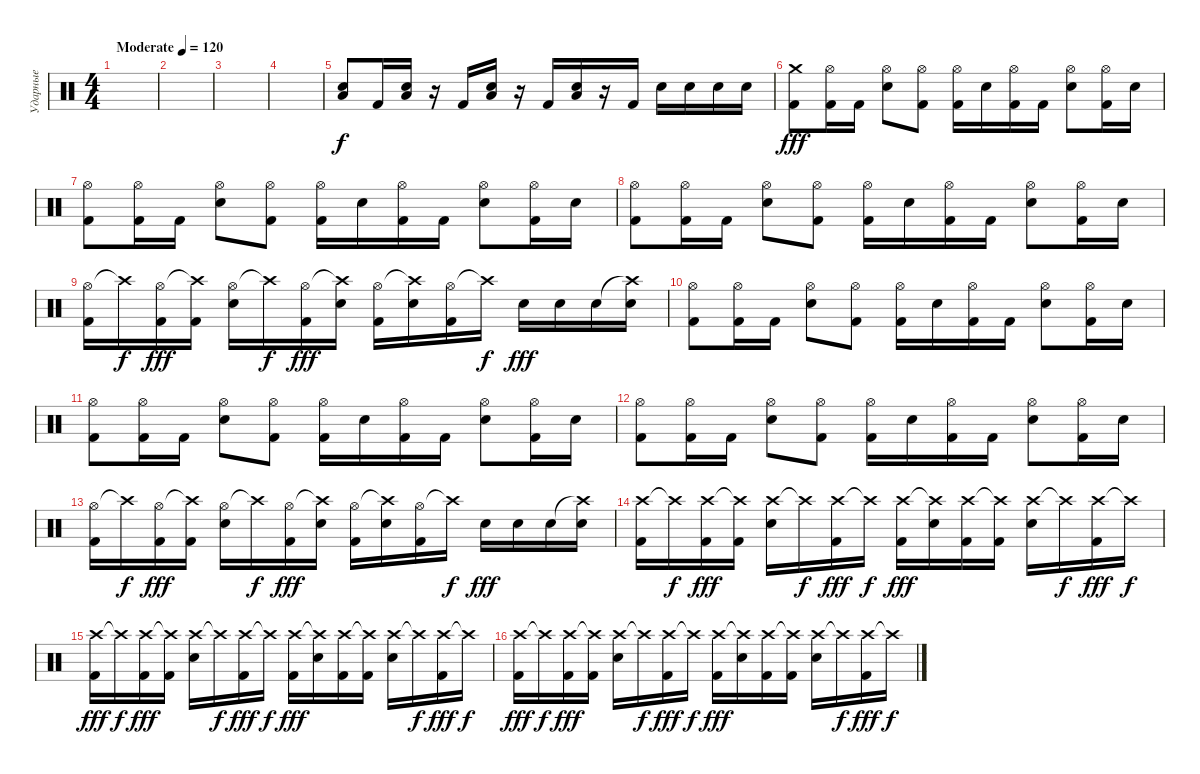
\track ("Ударные" "Ударные") {instrument percussion}
\staff {score}
\articulation defaults
\ts (4 4)
\tempo (120 "Moderate")
\clef neutral
\ks c
|
|
|
|
("Low Tom (hit)" "Electric Snare (hit)").8 "Kick (hit) 2".16 ("Low Tom (hit)" "Electric Snare (hit)").16 r.16 "Kick (hit) 2".16 ("Low Tom (hit)" "Electric Snare (hit)").16 r.16 "Kick (hit) 2".16 ("Low Tom (hit)" "Electric Snare (hit)").16 r.16 "Kick (hit) 2".16 "Electric Snare (hit)".16 "Electric Snare (hit)".16 "Electric Snare (hit)".16 "Electric Snare (hit)".16 |
("Crash medium (hit)" "Kick (hit) 2").8{dy fff} ("Hi-Hat (open)" "Kick (hit) 2").16 "Kick (hit) 2".16 ("Hi-Hat (open)" "Electric Snare (hit)").8 ("Hi-Hat (open)" "Kick (hit) 2").8 ("Hi-Hat (open)" "Kick (hit) 2").16 "Electric Snare (hit)".16 ("Hi-Hat (open)" "Kick (hit) 2").16 "Kick (hit) 2".16 ("Hi-Hat (open)" "Electric Snare (hit)").8 ("Hi-Hat (open)" "Kick (hit) 2").16 "Electric Snare (hit)".16 |
("Hi-Hat (open)" "Kick (hit) 2").8 ("Hi-Hat (open)" "Kick (hit) 2").16 "Kick (hit) 2".16 ("Hi-Hat (open)" "Electric Snare (hit)").8 ("Hi-Hat (open)" "Kick (hit) 2").8 ("Hi-Hat (open)" "Kick (hit) 2").16 "Electric Snare (hit)".16 ("Hi-Hat (open)" "Kick (hit) 2").16 "Kick (hit) 2".16 ("Hi-Hat (open)" "Electric Snare (hit)").8 ("Hi-Hat (open)" "Kick (hit) 2").16 "Electric Snare (hit)".16 |
("Hi-Hat (open)" "Kick (hit) 2").8 ("Hi-Hat (open)" "Kick (hit) 2").16 "Kick (hit) 2".16 ("Hi-Hat (open)" "Electric Snare (hit)").8 ("Hi-Hat (open)" "Kick (hit) 2").8 ("Hi-Hat (open)" "Kick (hit) 2").16 "Electric Snare (hit)".16 ("Hi-Hat (open)" "Kick (hit) 2").16 "Kick (hit) 2".16 ("Hi-Hat (open)" "Electric Snare (hit)").8 ("Hi-Hat (open)" "Kick (hit) 2").16 "Electric Snare (hit)".16 |
("Hi-Hat (open)" "Kick (hit) 2").16 "Crash high (hit)"{t}.16{dy f} ("Hi-Hat (open)" "Kick (hit) 2").16{dy fff} ("Crash high (hit)"{t} "Kick (hit) 2").16 ("Hi-Hat (open)" "Electric Snare (hit)").16 "Crash high (hit)"{t}.16{dy f} ("Hi-Hat (open)" "Kick (hit) 2").16{dy fff} ("Crash high (hit)"{t} "Electric Snare (hit)").16 ("Hi-Hat (open)" "Kick (hit) 2").16 ("Crash high (hit)"{t} "Electric Snare (hit)").16 ("Hi-Hat (open)" "Kick (hit) 2").16 "Crash high (hit)"{t}.16{dy f} "Electric Snare (hit)".16{dy fff} "Electric Snare (hit)".16 "Electric Snare (hit)".16 ("Crash high (hit)"{t} "Electric Snare (hit)").16 |
("Hi-Hat (open)" "Kick (hit) 2").8 ("Hi-Hat (open)" "Kick (hit) 2").16 "Kick (hit) 2".16 ("Hi-Hat (open)" "Electric Snare (hit)").8 ("Hi-Hat (open)" "Kick (hit) 2").8 ("Hi-Hat (open)" "Kick (hit) 2").16 "Electric Snare (hit)".16 ("Hi-Hat (open)" "Kick (hit) 2").16 "Kick (hit) 2".16 ("Hi-Hat (open)" "Electric Snare (hit)").8 ("Hi-Hat (open)" "Kick (hit) 2").16 "Electric Snare (hit)".16 |
("Hi-Hat (open)" "Kick (hit) 2").8 ("Hi-Hat (open)" "Kick (hit) 2").16 "Kick (hit) 2".16 ("Hi-Hat (open)" "Electric Snare (hit)").8 ("Hi-Hat (open)" "Kick (hit) 2").8 ("Hi-Hat (open)" "Kick (hit) 2").16 "Electric Snare (hit)".16 ("Hi-Hat (open)" "Kick (hit) 2").16 "Kick (hit) 2".16 ("Hi-Hat (open)" "Electric Snare (hit)").8 ("Hi-Hat (open)" "Kick (hit) 2").16 "Electric Snare (hit)".16 |
("Hi-Hat (open)" "Kick (hit) 2").8 ("Hi-Hat (open)" "Kick (hit) 2").16 "Kick (hit) 2".16 ("Hi-Hat (open)" "Electric Snare (hit)").8 ("Hi-Hat (open)" "Kick (hit) 2").8 ("Hi-Hat (open)" "Kick (hit) 2").16 "Electric Snare (hit)".16 ("Hi-Hat (open)" "Kick (hit) 2").16 "Kick (hit) 2".16 ("Hi-Hat (open)" "Electric Snare (hit)").8 ("Hi-Hat (open)" "Kick (hit) 2").16 "Electric Snare (hit)".16 |
("Hi-Hat (open)" "Kick (hit) 2").16 "Crash high (hit)"{t}.16{dy f} ("Hi-Hat (open)" "Kick (hit) 2").16{dy fff} ("Crash high (hit)"{t} "Kick (hit) 2").16 ("Hi-Hat (open)" "Electric Snare (hit)").16 "Crash high (hit)"{t}.16{dy f} ("Hi-Hat (open)" "Kick (hit) 2").16{dy fff} ("Crash high (hit)"{t} "Electric Snare (hit)").16 ("Hi-Hat (open)" "Kick (hit) 2").16 ("Crash high (hit)"{t} "Electric Snare (hit)").16 ("Hi-Hat (open)" "Kick (hit) 2").16 "Crash high (hit)"{t}.16{dy f} "Electric Snare (hit)".16{dy fff} "Electric Snare (hit)".16 "Electric Snare (hit)".16 ("Crash high (hit)"{t} "Electric Snare (hit)").16 |
("Crash high (hit)" "Kick (hit) 2").16 "Crash high (hit)"{t}.16{dy f} ("Crash high (hit)" "Kick (hit) 2").16{dy fff} ("Crash high (hit)"{t} "Kick (hit) 2").16 ("Crash high (hit)" "Electric Snare (hit)").16 "Crash high (hit)"{t}.16{dy f} ("Crash high (hit)" "Kick (hit) 2").16{dy fff} "Crash high (hit)"{t}.16{dy f} ("Crash high (hit)" "Kick (hit) 2").16{dy fff} ("Crash high (hit)"{t} "Electric Snare (hit)").16 ("Crash high (hit)" "Kick (hit) 2").16 ("Crash high (hit)"{t} "Kick (hit) 2").16 ("Crash high (hit)" "Electric Snare (hit)").16 "Crash high (hit)"{t}.16{dy f} ("Crash high (hit)" "Kick (hit) 2").16{dy fff} "Crash high (hit)"{t}.16{dy f} |
("Crash high (hit)" "Kick (hit) 2").16{dy fff} "Crash high (hit)"{t}.16{dy f} ("Crash high (hit)" "Kick (hit) 2").16{dy fff} ("Crash high (hit)"{t} "Kick (hit) 2").16 ("Crash high (hit)" "Electric Snare (hit)").16 "Crash high (hit)"{t}.16{dy f} ("Crash high (hit)" "Kick (hit) 2").16{dy fff} "Crash high (hit)"{t}.16{dy f} ("Crash high (hit)" "Kick (hit) 2").16{dy fff} ("Crash high (hit)"{t} "Electric Snare (hit)").16 ("Crash high (hit)" "Kick (hit) 2").16 ("Crash high (hit)"{t} "Kick (hit) 2").16 ("Crash high (hit)" "Electric Snare (hit)").16 "Crash high (hit)"{t}.16{dy f} ("Crash high (hit)" "Kick (hit) 2").16{dy fff} "Crash high (hit)"{t}.16{dy f} |
("Crash high (hit)" "Kick (hit) 2").16{dy fff} "Crash high (hit)"{t}.16{dy f} ("Crash high (hit)" "Kick (hit) 2").16{dy fff} ("Crash high (hit)"{t} "Kick (hit) 2").16 ("Crash high (hit)" "Electric Snare (hit)").16 "Crash high (hit)"{t}.16{dy f} ("Crash high (hit)" "Kick (hit) 2").16{dy fff} "Crash high (hit)"{t}.16{dy f} ("Crash high (hit)" "Kick (hit) 2").16{dy fff} ("Crash high (hit)"{t} "Electric Snare (hit)").16 ("Crash high (hit)" "Kick (hit) 2").16 ("Crash high (hit)"{t} "Kick (hit) 2").16 ("Crash high (hit)" "Electric Snare (hit)").16 "Crash high (hit)"{t}.16{dy f} ("Crash high (hit)" "Kick (hit) 2").16{dy fff} "Crash high (hit)"{t}.16{dy f}
